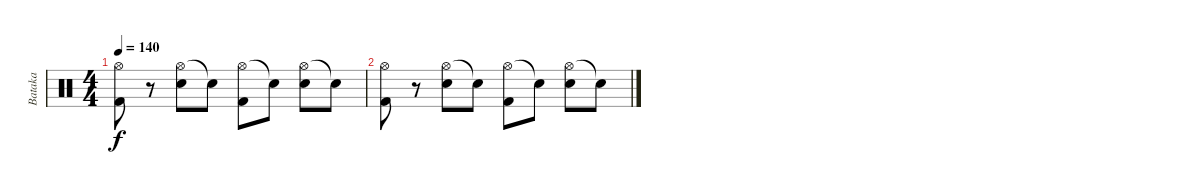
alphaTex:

\track ("Bataka" "Bataka") {instrument percussion}
\staff {score}
\articulation defaults
\ts (4 4)
\tempo 140
\clef neutral
\ks c
("Hi-Hat (open)" "Kick (hit) 2").8{dy f} r.8 ("Hi-Hat (open)" "Snare (hit) 2").8 "Snare (hit)"{t}.8 ("Hi-Hat (open)" "Kick (hit) 2").8 "Snare (hit)"{t}.8 ("Hi-Hat (open)" "Snare (hit) 2").8 "Snare (hit)"{t}.8 |
("Hi-Hat (open)" "Kick (hit) 2").8 r.8 ("Hi-Hat (open)" "Snare (hit) 2").8 "Snare (hit)"{t}.8 ("Hi-Hat (open)" "Kick (hit) 2").8 "Snare (hit)"{t}.8 ("Hi-Hat (open)" "Snare (hit) 2").8 "Snare (hit)"{t}.8
